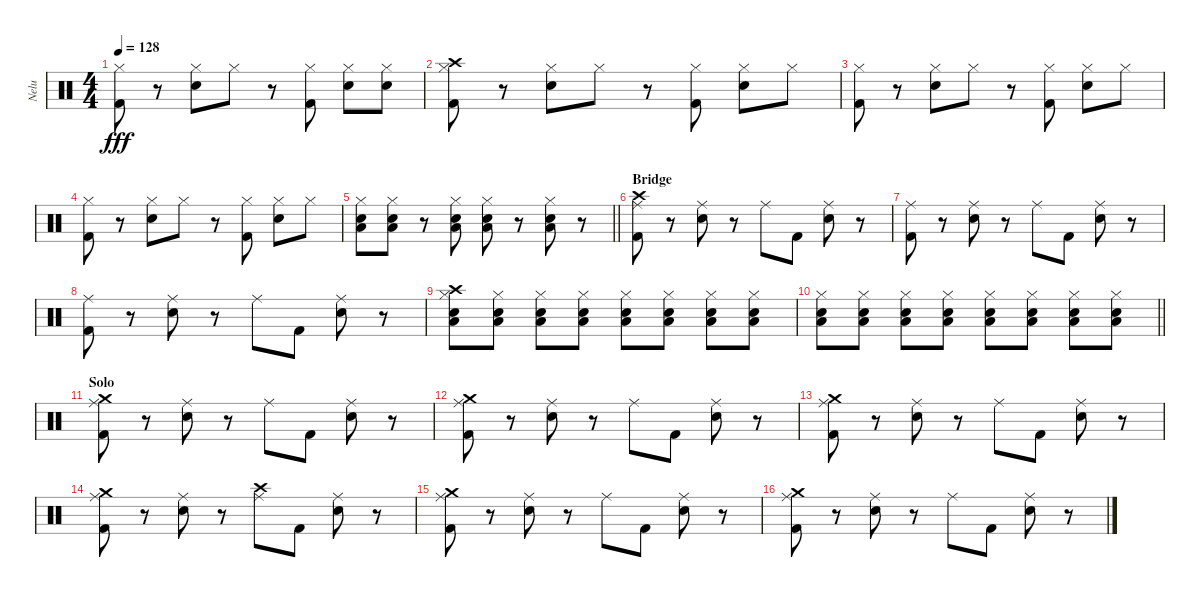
\track ("Nelu" "Nelu") {instrument percussion}
\staff {score}
\articulation defaults
\ts (4 4)
\tempo 128
\clef neutral
\ks c
("Kick (hit) 2" "Hi-Hat (closed)").8{dy fff} r.8 ("Electric Snare (hit)" "Hi-Hat (closed)").8 "Hi-Hat (closed)".8 r.8 ("Hi-Hat (closed)" "Kick (hit) 2").8 ("Hi-Hat (closed)" "Electric Snare (hit)").8 ("Hi-Hat (closed)" "Electric Snare (hit)").8 |
("Kick (hit) 2" "Crash high (hit)" "Hi-Hat (closed)").8 r.8 ("Electric Snare (hit)" "Hi-Hat (closed)").8 "Hi-Hat (closed)".8 r.8 ("Hi-Hat (closed)" "Kick (hit) 2").8 ("Hi-Hat (closed)" "Electric Snare (hit)").8 "Hi-Hat (closed)".8 |
("Kick (hit) 2" "Hi-Hat (closed)").8 r.8 ("Electric Snare (hit)" "Hi-Hat (closed)").8 "Hi-Hat (closed)".8 r.8 ("Hi-Hat (closed)" "Kick (hit) 2").8 ("Hi-Hat (closed)" "Electric Snare (hit)").8 "Hi-Hat (closed)".8 |
("Kick (hit) 2" "Hi-Hat (closed)").8 r.8 ("Electric Snare (hit)" "Hi-Hat (closed)").8 "Hi-Hat (closed)".8 r.8 ("Hi-Hat (closed)" "Kick (hit) 2").8 ("Hi-Hat (closed)" "Electric Snare (hit)").8 "Hi-Hat (closed)".8 |
\barLineRight lightlight
("Electric Snare (hit)" "Low Floor Tom (hit)" "Hi-Hat (closed)").8 ("Electric Snare (hit)" "Low Floor Tom (hit)" "Hi-Hat (closed)").8 r.8 ("Electric Snare (hit)" "Low Floor Tom (hit)" "Hi-Hat (closed)").8 ("Electric Snare (hit)" "Low Floor Tom (hit)" "Hi-Hat (closed)").8 r.8 ("Electric Snare (hit)" "Low Floor Tom (hit)" "Hi-Hat (closed)").8 r.8 |
\section ("" "Bridge")
("Kick (hit) 2" "Crash high (hit)" "Ride (middle)").8 r.8 ("Electric Snare (hit)" "Ride (middle)").8 r.8 "Ride (middle)".8 "Kick (hit) 2".8 ("Ride (middle)" "Electric Snare (hit)").8 r.8 |
("Kick (hit) 2" "Ride (middle)").8 r.8 ("Electric Snare (hit)" "Ride (middle)").8 r.8 "Ride (middle)".8 "Kick (hit) 2".8 ("Ride (middle)" "Electric Snare (hit)").8 r.8 |
("Kick (hit) 2" "Ride (middle)").8 r.8 ("Electric Snare (hit)" "Ride (middle)").8 r.8 "Ride (middle)".8 "Kick (hit) 2".8 ("Ride (middle)" "Electric Snare (hit)").8 r.8 |
("Electric Snare (hit)" "Low Floor Tom (hit)" "Hi-Hat (closed)" "Crash high (hit)").8 ("Electric Snare (hit)" "Low Floor Tom (hit)" "Hi-Hat (closed)").8 ("Electric Snare (hit)" "Low Floor Tom (hit)" "Hi-Hat (closed)").8 ("Electric Snare (hit)" "Low Floor Tom (hit)" "Hi-Hat (closed)").8 ("Electric Snare (hit)" "Low Floor Tom (hit)" "Hi-Hat (closed)").8 ("Electric Snare (hit)" "Low Floor Tom (hit)" "Hi-Hat (closed)").8 ("Electric Snare (hit)" "Low Floor Tom (hit)" "Hi-Hat (closed)").8 ("Electric Snare (hit)" "Low Floor Tom (hit)" "Hi-Hat (closed)").8 |
\barLineRight lightlight
("Electric Snare (hit)" "Low Floor Tom (hit)" "Hi-Hat (closed)").8 ("Electric Snare (hit)" "Low Floor Tom (hit)" "Hi-Hat (closed)").8 ("Electric Snare (hit)" "Low Floor Tom (hit)" "Hi-Hat (closed)").8 ("Electric Snare (hit)" "Low Floor Tom (hit)" "Hi-Hat (closed)").8 ("Electric Snare (hit)" "Low Floor Tom (hit)" "Hi-Hat (closed)").8 ("Electric Snare (hit)" "Low Floor Tom (hit)" "Hi-Hat (closed)").8 ("Electric Snare (hit)" "Low Floor Tom (hit)" "Hi-Hat (closed)").8 ("Electric Snare (hit)" "Low Floor Tom (hit)" "Hi-Hat (closed)").8 |
\section ("" "Solo")
("Kick (hit) 2" "Crash medium (hit)" "Ride (middle)").8 r.8 ("Electric Snare (hit)" "Ride (middle)").8 r.8 "Ride (middle)".8 "Kick (hit) 2".8 ("Ride (middle)" "Electric Snare (hit)").8 r.8 |
("Kick (hit) 2" "Crash medium (hit)" "Ride (middle)").8 r.8 ("Electric Snare (hit)" "Ride (middle)").8 r.8 "Ride (middle)".8 "Kick (hit) 2".8 ("Ride (middle)" "Electric Snare (hit)").8 r.8 |
("Kick (hit) 2" "Crash medium (hit)" "Ride (middle)").8 r.8 ("Electric Snare (hit)" "Ride (middle)").8 r.8 "Ride (middle)".8 "Kick (hit) 2".8 ("Ride (middle)" "Electric Snare (hit)").8 r.8 |
("Kick (hit) 2" "Crash medium (hit)" "Ride (middle)").8 r.8 ("Electric Snare (hit)" "Ride (middle)").8 r.8 ("Ride (middle)" "Crash high (hit)").8 "Kick (hit) 2".8 ("Ride (middle)" "Electric Snare (hit)").8 r.8 |
("Kick (hit) 2" "Crash medium (hit)" "Ride (middle)").8 r.8 ("Electric Snare (hit)" "Ride (middle)").8 r.8 "Ride (middle)".8 "Kick (hit) 2".8 ("Ride (middle)" "Electric Snare (hit)").8 r.8 |
("Kick (hit) 2" "Crash medium (hit)" "Ride (middle)").8 r.8 ("Electric Snare (hit)" "Ride (middle)").8 r.8 "Ride (middle)".8 "Kick (hit) 2".8 ("Ride (middle)" "Electric Snare (hit)").8 r.8
